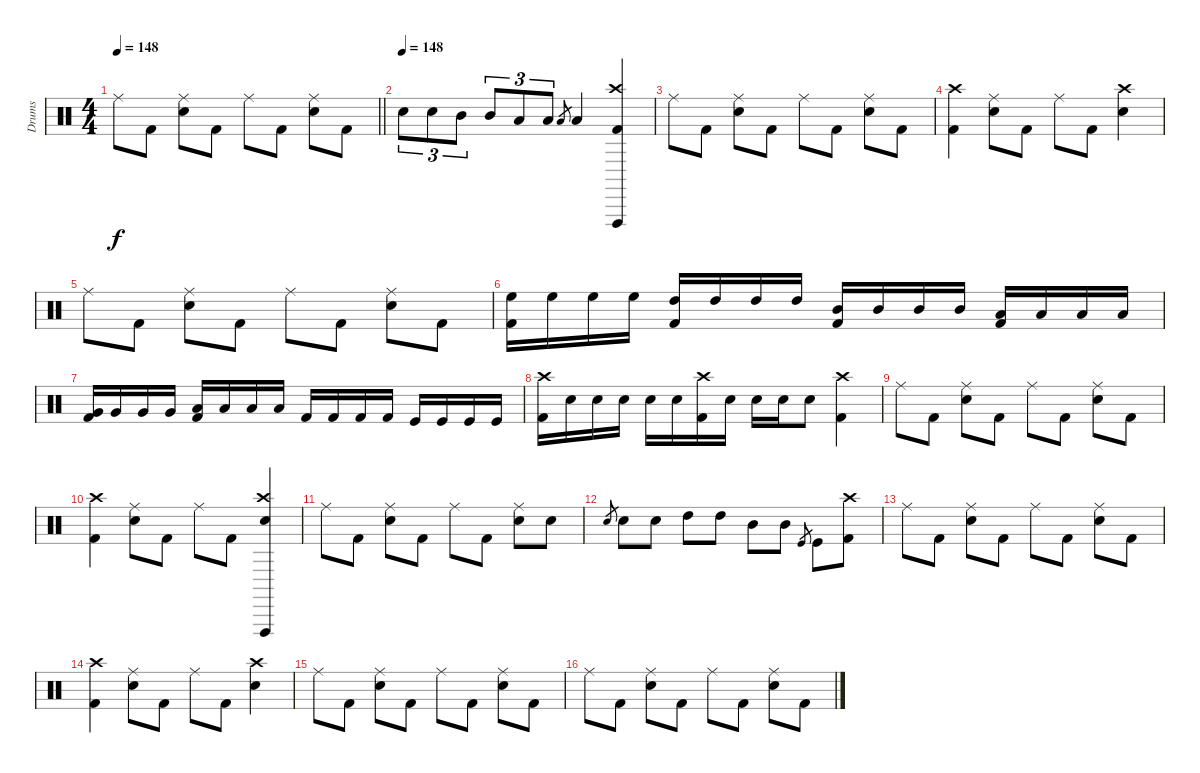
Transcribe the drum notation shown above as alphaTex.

\track ("Drums" "Drums") {instrument percussion}
\staff {score}
\articulation defaults
\ts (4 4)
\tempo 148
\clef neutral
\barLineRight lightlight
\ks c "Ride (middle)".8{dy f} "Kick (hit) 2".8
("Ride (middle)" "Snare (hit) 2").8 "Kick (hit) 2".8 "Ride (middle)".8 "Kick (hit) 2".8 ("Ride (middle)" "Snare (hit) 2").8 "Kick (hit) 2".8 |
\tempo (148)
"Snare (hit) 2".8{tu (3 2)} "Snare (hit) 2".8{tu (3 2)} "Mid Tom (hit)".8{tu (3 2)} "Mid Tom (hit)".8{tu (3 2)} "Low Tom (hit)".8{tu (3 2)} "Low Tom (hit)".8{tu (3 2)} "Low Floor Tom (hit)".8{gr} "Low Floor Tom (hit)".4 ("Crash high (hit)" "Vibraslap (hit)" "Kick (hit) 2").4 |
"Ride (middle)".8 "Kick (hit) 2".8 ("Ride (middle)" "Snare (hit) 2").8 "Kick (hit) 2".8 "Ride (middle)".8 "Kick (hit) 2".8 ("Ride (middle)" "Snare (hit) 2").8 "Kick (hit) 2".8 |
("Crash high (hit)" "Kick (hit) 2").4 ("Ride (middle)" "Snare (hit) 2").8 "Kick (hit) 2".8 "Ride (middle)".8 "Kick (hit) 2".8 ("Crash high (hit)" "Snare (hit) 2").4 |
"Ride (middle)".8 "Kick (hit) 2".8 ("Ride (middle)" "Snare (hit) 2").8 "Kick (hit) 2".8 "Ride (middle)".8 "Kick (hit) 2".8 ("Ride (middle)" "Snare (hit) 2").8 "Kick (hit) 2".8 |
("High Floor Tom (hit)" "Kick (hit) 2").16 "High Floor Tom (hit)".16 "High Floor Tom (hit)".16 "High Floor Tom (hit)".16 ("High Tom (hit)" "Kick (hit) 2").16 "High Tom (hit)".16 "High Tom (hit)".16 "High Tom (hit)".16 ("Mid Tom (hit)" "Kick (hit) 2").16 "Mid Tom (hit)".16 "Mid Tom (hit)".16 "Mid Tom (hit)".16 ("Low Tom (hit)" "Kick (hit) 2").16 "Low Tom (hit)".16 "Low Tom (hit)".16 "Low Tom (hit)".16 |
("Very Low Tom (hit)" "Kick (hit) 2").16 "Very Low Tom (hit)".16 "Very Low Tom (hit)".16 "Very Low Tom (hit)".16 ("Low Floor Tom (hit)" "Kick (hit) 2").16 "Low Floor Tom (hit)".16 "Low Floor Tom (hit)".16 "Low Floor Tom (hit)".16 "Kick (hit) 2".16 "Kick (hit) 2".16 "Kick (hit) 2".16 "Kick (hit) 2".16 "Kick (hit)".16 "Kick (hit)".16 "Kick (hit)".16 "Kick (hit)".16 |
("Crash high (hit)" "Kick (hit) 2").16 "Snare (hit) 2".16 "Snare (hit) 2".16 "Snare (hit) 2".16 "Snare (hit) 2".16 "Snare (hit) 2".16 ("Crash high (hit)" "Kick (hit) 2").16 "Snare (hit) 2".16 "Snare (hit) 2".16 "Snare (hit) 2".16 "Snare (hit) 2".8 ("Crash high (hit)" "Kick (hit) 2").4 |
"Ride (middle)".8 "Kick (hit) 2".8 ("Ride (middle)" "Snare (hit) 2").8 "Kick (hit) 2".8 "Ride (middle)".8 "Kick (hit) 2".8 ("Ride (middle)" "Snare (hit) 2").8 "Kick (hit) 2".8 |
("Crash high (hit)" "Kick (hit) 2").4 ("Ride (middle)" "Snare (hit) 2").8 "Kick (hit) 2".8 "Ride (middle)".8 "Kick (hit) 2".8 ("Crash high (hit)" "Vibraslap (hit)" "Snare (hit) 2").4 |
"Ride (middle)".8 "Kick (hit) 2".8 ("Ride (middle)" "Snare (hit) 2").8 "Kick (hit) 2".8 "Ride (middle)".8 "Kick (hit) 2".8 ("Ride (middle)" "Snare (hit) 2").8 "Snare (hit) 2".8 |
"Snare (hit) 2".8{gr} "Snare (hit) 2".8 "Snare (hit) 2".8 "High Tom (hit)".8 "High Tom (hit)".8 "Mid Tom (hit)".8 "Mid Tom (hit)".8 "Kick (hit)".8{gr} "Kick (hit)".8 ("Crash high (hit)" "Kick (hit) 2").8 |
"Ride (middle)".8 "Kick (hit) 2".8 ("Ride (middle)" "Snare (hit) 2").8 "Kick (hit) 2".8 "Ride (middle)".8 "Kick (hit) 2".8 ("Ride (middle)" "Snare (hit) 2").8 "Kick (hit) 2".8 |
("Crash high (hit)" "Kick (hit) 2").4 ("Ride (middle)" "Snare (hit) 2").8 "Kick (hit) 2".8 "Ride (middle)".8 "Kick (hit) 2".8 ("Crash high (hit)" "Snare (hit) 2").4 |
"Ride (middle)".8 "Kick (hit) 2".8 ("Ride (middle)" "Snare (hit) 2").8 "Kick (hit) 2".8 "Ride (middle)".8 "Kick (hit) 2".8 ("Ride (middle)" "Snare (hit) 2").8 "Kick (hit) 2".8 |
"Ride (middle)".8 "Kick (hit) 2".8 ("Ride (middle)" "Snare (hit) 2").8 "Kick (hit) 2".8 "Ride (middle)".8 "Kick (hit) 2".8 ("Ride (middle)" "Snare (hit) 2").8 "Kick (hit) 2".8
